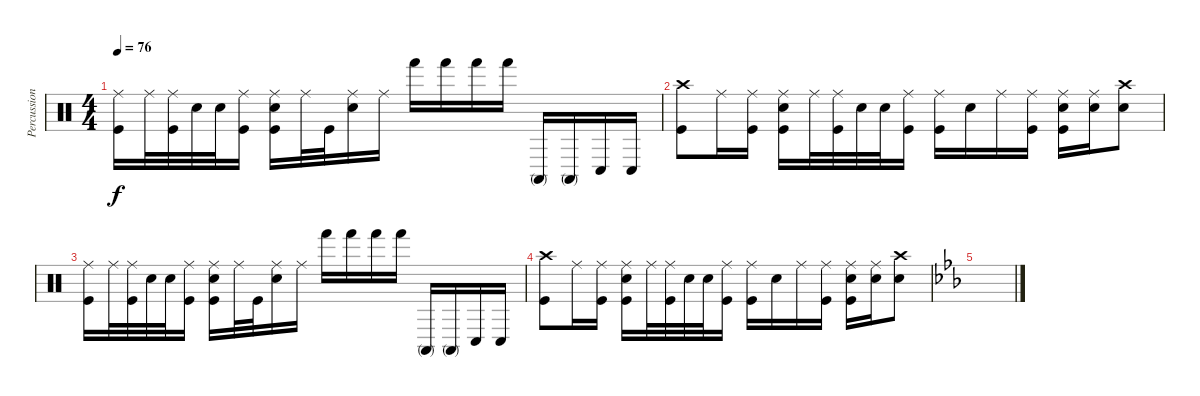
\track ("Percussions" "Percussion") {instrument percussion}
\staff {score}
\articulation defaults
\ts (4 4)
\tempo 76
\clef neutral
\ks c
("Kick (hit)" "Ride (middle)").16{dy f} "Ride (middle)".32 ("Kick (hit)" "Ride (middle)").32 "Electric Snare (hit)".32 "Electric Snare (hit)".32 ("Kick (hit)" "Ride (middle)").16 ("Ride (middle)" "Kick (hit)" "Electric Snare (hit)").16 "Ride (middle)".32 "Kick (hit)".32 ("Ride (middle)" "Electric Snare (hit)").16 "Ride (middle)".16 "Hand (hit)".16 "Hand (hit)".16 "Hand (hit)".16 "Hand (hit)".16 "Conga high (mute)".16 "Conga high (mute)".16 "Conga low (hit)".16 "Conga low (hit)".16 |
("Kick (hit)" "Crash high (hit)").8 "Ride (middle)".16 ("Kick (hit)" "Ride (middle)").16 ("Electric Snare (hit)" "Kick (hit)" "Ride (middle)").16 "Ride (middle)".32 ("Kick (hit)" "Ride (middle)").32 "Electric Snare (hit)".32 "Electric Snare (hit)".32 ("Kick (hit)" "Ride (middle)").16 ("Kick (hit)" "Ride (middle)").16 "Electric Snare (hit)".16 "Ride (middle)".16 ("Kick (hit)" "Ride (middle)").16 ("Kick (hit)" "Electric Snare (hit)" "Ride (middle)").16 ("Electric Snare (hit)" "Ride (middle)").16 ("Electric Snare (hit)" "Crash high (hit)").8 |
("Ride (middle)" "Kick (hit)").16 "Ride (middle)".32 ("Kick (hit)" "Ride (middle)").32 "Electric Snare (hit)".32 "Electric Snare (hit)".32 ("Kick (hit)" "Ride (middle)").16 ("Ride (middle)" "Kick (hit)" "Electric Snare (hit)").16 "Ride (middle)".32 "Kick (hit)".32 ("Ride (middle)" "Electric Snare (hit)").16 "Ride (middle)".16 "Hand (hit)".16 "Hand (hit)".16 "Hand (hit)".16 "Hand (hit)".16 "Conga high (mute)".16 "Conga high (mute)".16 "Conga low (hit)".16 "Conga low (hit)".16 |
("Crash high (hit)" "Kick (hit)").8 "Ride (middle)".16 ("Kick (hit)" "Ride (middle)").16 ("Electric Snare (hit)" "Kick (hit)" "Ride (middle)").16 "Ride (middle)".32 ("Kick (hit)" "Ride (middle)").32 "Electric Snare (hit)".32 "Electric Snare (hit)".32 ("Kick (hit)" "Ride (middle)").16 ("Kick (hit)" "Ride (middle)").16 "Electric Snare (hit)".16 "Ride (middle)".16 ("Kick (hit)" "Ride (middle)").16 ("Kick (hit)" "Electric Snare (hit)" "Ride (middle)").16 ("Electric Snare (hit)" "Ride (middle)").16 ("Electric Snare (hit)" "Crash high (hit)").8 |
\ks eb
